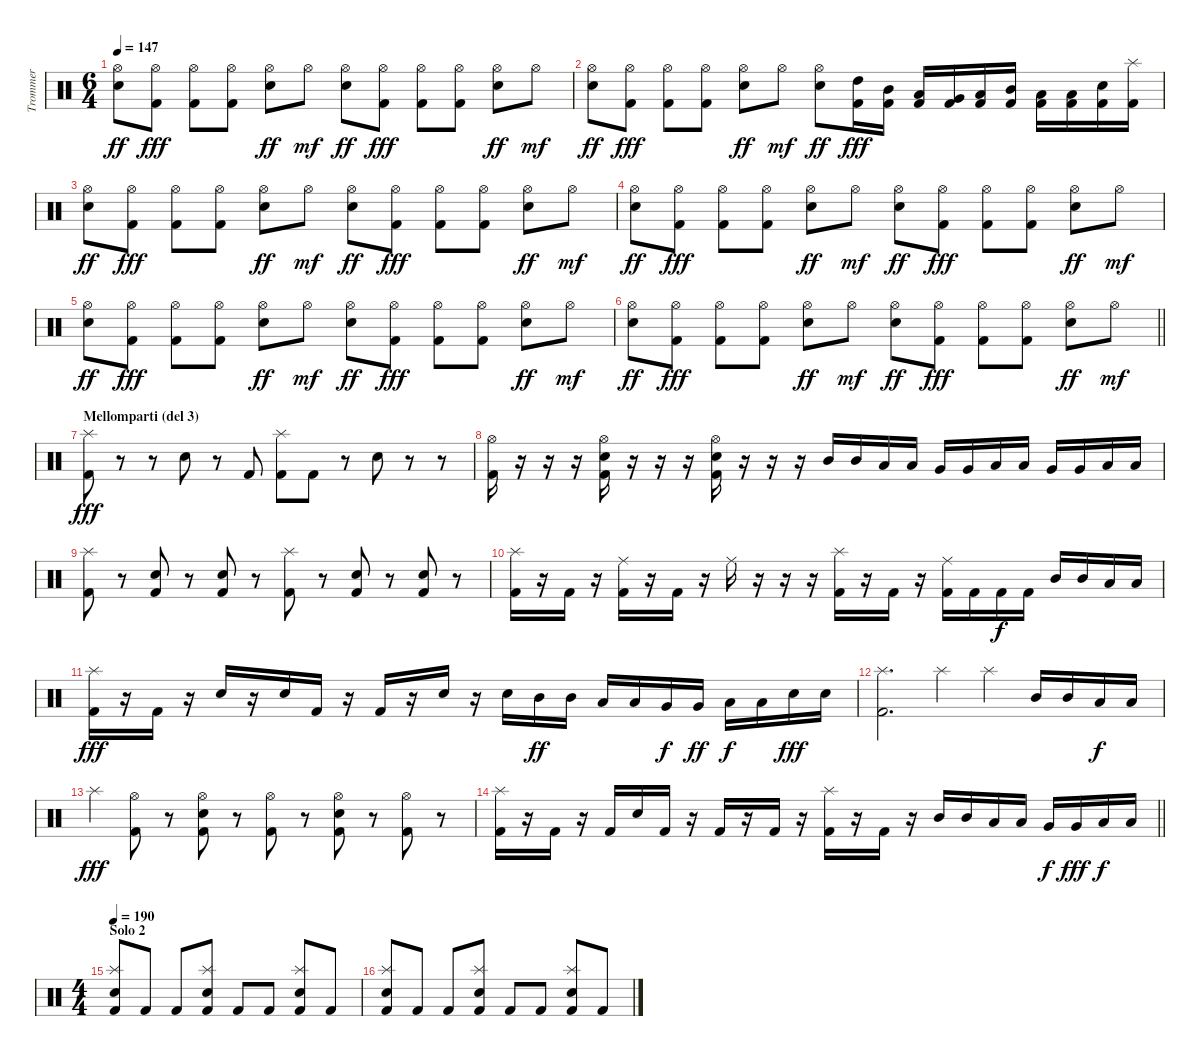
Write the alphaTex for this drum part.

\track ("Trommer" "Trommer") {instrument percussion}
\staff {score}
\articulation defaults
\ts (6 4)
\tempo 147
\clef neutral
\ks c
("Hi-Hat (open)" "Electric Snare (hit)").8{dy ff} ("Hi-Hat (open)" "Kick (hit) 2").8{dy fff} ("Hi-Hat (open)" "Kick (hit) 2").8 ("Hi-Hat (open)" "Kick (hit) 2").8 ("Hi-Hat (open)" "Electric Snare (hit)").8{dy ff} "Hi-Hat (open)".8{dy mf} ("Hi-Hat (open)" "Electric Snare (hit)").8{dy ff} ("Hi-Hat (open)" "Kick (hit) 2").8{dy fff} ("Hi-Hat (open)" "Kick (hit) 2").8 ("Hi-Hat (open)" "Kick (hit) 2").8 ("Hi-Hat (open)" "Electric Snare (hit)").8{dy ff} "Hi-Hat (open)".8{dy mf} |
("Hi-Hat (open)" "Electric Snare (hit)").8{dy ff} ("Hi-Hat (open)" "Kick (hit) 2").8{dy fff} ("Hi-Hat (open)" "Kick (hit) 2").8 ("Hi-Hat (open)" "Kick (hit) 2").8 ("Hi-Hat (open)" "Electric Snare (hit)").8{dy ff} "Hi-Hat (open)".8{dy mf} ("Hi-Hat (open)" "Electric Snare (hit)").8{dy ff} ("High Tom (hit)" "Kick (hit) 2").16{dy fff} ("Mid Tom (hit)" "Kick (hit) 2").16 ("Low Tom (hit)" "Kick (hit) 2").16 ("Very Low Tom (hit)" "Kick (hit) 2").16 ("Low Floor Tom (hit)" "Kick (hit) 2").16 ("Mid Tom (hit)" "Kick (hit) 2").16 ("Low Tom (hit)" "Kick (hit) 2").16 ("Low Floor Tom (hit)" "Kick (hit) 2").16 ("Electric Snare (hit)" "Kick (hit) 2").16 ("Splash (hit)" "Kick (hit) 2").16 |
("Hi-Hat (open)" "Electric Snare (hit)").8{dy ff} ("Hi-Hat (open)" "Kick (hit) 2").8{dy fff} ("Hi-Hat (open)" "Kick (hit) 2").8 ("Hi-Hat (open)" "Kick (hit) 2").8 ("Hi-Hat (open)" "Electric Snare (hit)").8{dy ff} "Hi-Hat (open)".8{dy mf} ("Hi-Hat (open)" "Electric Snare (hit)").8{dy ff} ("Hi-Hat (open)" "Kick (hit) 2").8{dy fff} ("Hi-Hat (open)" "Kick (hit) 2").8 ("Hi-Hat (open)" "Kick (hit) 2").8 ("Hi-Hat (open)" "Electric Snare (hit)").8{dy ff} "Hi-Hat (open)".8{dy mf} |
("Hi-Hat (open)" "Electric Snare (hit)").8{dy ff} ("Hi-Hat (open)" "Kick (hit) 2").8{dy fff} ("Hi-Hat (open)" "Kick (hit) 2").8 ("Hi-Hat (open)" "Kick (hit) 2").8 ("Hi-Hat (open)" "Electric Snare (hit)").8{dy ff} "Hi-Hat (open)".8{dy mf} ("Hi-Hat (open)" "Electric Snare (hit)").8{dy ff} ("Hi-Hat (open)" "Kick (hit) 2").8{dy fff} ("Hi-Hat (open)" "Kick (hit) 2").8 ("Hi-Hat (open)" "Kick (hit) 2").8 ("Hi-Hat (open)" "Electric Snare (hit)").8{dy ff} "Hi-Hat (open)".8{dy mf} |
("Hi-Hat (open)" "Electric Snare (hit)").8{dy ff} ("Hi-Hat (open)" "Kick (hit) 2").8{dy fff} ("Hi-Hat (open)" "Kick (hit) 2").8 ("Hi-Hat (open)" "Kick (hit) 2").8 ("Hi-Hat (open)" "Electric Snare (hit)").8{dy ff} "Hi-Hat (open)".8{dy mf} ("Hi-Hat (open)" "Electric Snare (hit)").8{dy ff} ("Hi-Hat (open)" "Kick (hit) 2").8{dy fff} ("Hi-Hat (open)" "Kick (hit) 2").8 ("Hi-Hat (open)" "Kick (hit) 2").8 ("Hi-Hat (open)" "Electric Snare (hit)").8{dy ff} "Hi-Hat (open)".8{dy mf} |
\barLineRight lightlight
("Hi-Hat (open)" "Electric Snare (hit)").8{dy ff} ("Hi-Hat (open)" "Kick (hit) 2").8{dy fff} ("Hi-Hat (open)" "Kick (hit) 2").8 ("Hi-Hat (open)" "Kick (hit) 2").8 ("Hi-Hat (open)" "Electric Snare (hit)").8{dy ff} "Hi-Hat (open)".8{dy mf} ("Hi-Hat (open)" "Electric Snare (hit)").8{dy ff} ("Hi-Hat (open)" "Kick (hit) 2").8{dy fff} ("Hi-Hat (open)" "Kick (hit) 2").8 ("Hi-Hat (open)" "Kick (hit) 2").8 ("Hi-Hat (open)" "Electric Snare (hit)").8{dy ff} "Hi-Hat (open)".8{dy mf} |
\section ("" "Mellomparti (del 3)")
("Splash (hit)" "Kick (hit) 2").8{dy fff} r.8 r.8 "Electric Snare (hit)".8 r.8 "Kick (hit) 2".8 ("Splash (hit)" "Kick (hit) 2").8 "Kick (hit) 2".8 r.8 "Electric Snare (hit)".8 r.8 r.8 |
("Hi-Hat (open)" "Kick (hit) 2").16 r.16 r.16 r.16 ("Hi-Hat (open)" "Electric Snare (hit)" "Kick (hit) 2").16 r.16 r.16 r.16 ("Hi-Hat (open)" "Electric Snare (hit)" "Kick (hit) 2").16 r.16 r.16 r.16 "Mid Tom (hit)".16 "Mid Tom (hit)".16 "Low Tom (hit)".16 "Low Tom (hit)".16 "Very Low Tom (hit)".16 "Very Low Tom (hit)".16 "Low Tom (hit)".16 "Low Tom (hit)".16 "Very Low Tom (hit)".16 "Very Low Tom (hit)".16 "Low Floor Tom (hit)".16 "Low Floor Tom (hit)".16 |
("Splash (hit)" "Kick (hit) 2").8 r.8 ("Electric Snare (hit)" "Kick (hit) 2").8 r.8 ("Electric Snare (hit)" "Kick (hit) 2").8 r.8 ("Splash (hit)" "Kick (hit) 2").8 r.8 ("Electric Snare (hit)" "Kick (hit) 2").8 r.8 ("Electric Snare (hit)" "Kick (hit) 2").8 r.8 |
("Splash (hit)" "Kick (hit) 2").16 r.16 "Kick (hit) 2".16 r.16 ("Ride (middle)" "Kick (hit) 2").16 r.16 "Kick (hit) 2".16 r.16 "Ride (middle)".16 r.16 r.16 r.16 ("Splash (hit)" "Kick (hit) 2").16 r.16 "Kick (hit) 2".16 r.16 ("Ride (middle)" "Kick (hit) 2").16 "Kick (hit) 2".16 "Kick (hit) 2".16{dy f} "Kick (hit) 2".16 "Mid Tom (hit)".16 "Mid Tom (hit)".16 "Low Tom (hit)".16 "Low Tom (hit)".16 |
("Splash (hit)" "Kick (hit) 2").16{dy fff} r.16 "Kick (hit) 2".16 r.16 "Electric Snare (hit)".16 r.16 "Electric Snare (hit)".16 "Kick (hit) 2".16 r.16 "Kick (hit) 2".16 r.16 "Electric Snare (hit)".16 r.16 "Electric Snare (hit)".16 "Mid Tom (hit)".16{dy ff} "Mid Tom (hit)".16 "Low Tom (hit)".16 "Low Tom (hit)".16 "Very Low Tom (hit)".16{dy f} "Very Low Tom (hit)".16{dy ff} "Low Floor Tom (hit)".16{dy f} "Low Floor Tom (hit)".16 "Electric Snare (hit)".16{dy fff} "Electric Snare (hit)".16 |
("Splash (hit)" "Kick (hit) 2").2{d} "Splash (hit)".4 "Splash (hit)".4 "Mid Tom (hit)".16 "Mid Tom (hit)".16 "Low Tom (hit)".16{dy f} "Low Tom (hit)".16 |
"Splash (hit)".4{dy fff} ("Hi-Hat (open)" "Kick (hit) 2").8 r.8 ("Hi-Hat (open)" "Electric Snare (hit)" "Kick (hit) 2").8 r.8 ("Hi-Hat (open)" "Kick (hit) 2").8 r.8 ("Hi-Hat (open)" "Electric Snare (hit)" "Kick (hit) 2").8 r.8 ("Hi-Hat (open)" "Kick (hit) 2").8 r.8 |
\barLineRight lightlight
("Splash (hit)" "Kick (hit) 2").16 r.16 "Kick (hit) 2".16 r.16 "Kick (hit) 2".16 "Electric Snare (hit)".16 "Kick (hit) 2".16 r.16 "Kick (hit) 2".16 r.16 "Kick (hit) 2".16 r.16 ("Splash (hit)" "Kick (hit) 2").16 r.16 "Kick (hit) 2".16 r.16 "Mid Tom (hit)".16 "Mid Tom (hit)".16 "Low Tom (hit)".16 "Low Tom (hit)".16 "Very Low Tom (hit)".16{dy f} "Very Low Tom (hit)".16{dy fff} "Low Floor Tom (hit)".16{dy f} "Low Floor Tom (hit)".16 |
\ts (4 4)
\section ("" "Solo 2")
\tempo 190
("Splash (hit)" "Snare (hit) 2" "Kick (hit) 2").8 "Kick (hit) 2".8 "Kick (hit) 2".8 ("Splash (hit)" "Snare (hit) 2" "Kick (hit) 2").8 "Kick (hit) 2".8 "Kick (hit) 2".8 ("Splash (hit)" "Snare (hit) 2" "Kick (hit) 2").8 "Kick (hit) 2".8 |
("Splash (hit)" "Snare (hit) 2" "Kick (hit) 2").8 "Kick (hit) 2".8 "Kick (hit) 2".8 ("Splash (hit)" "Snare (hit) 2" "Kick (hit) 2").8 "Kick (hit) 2".8 "Kick (hit) 2".8 ("Splash (hit)" "Snare (hit) 2" "Kick (hit) 2").8 "Kick (hit) 2".8
